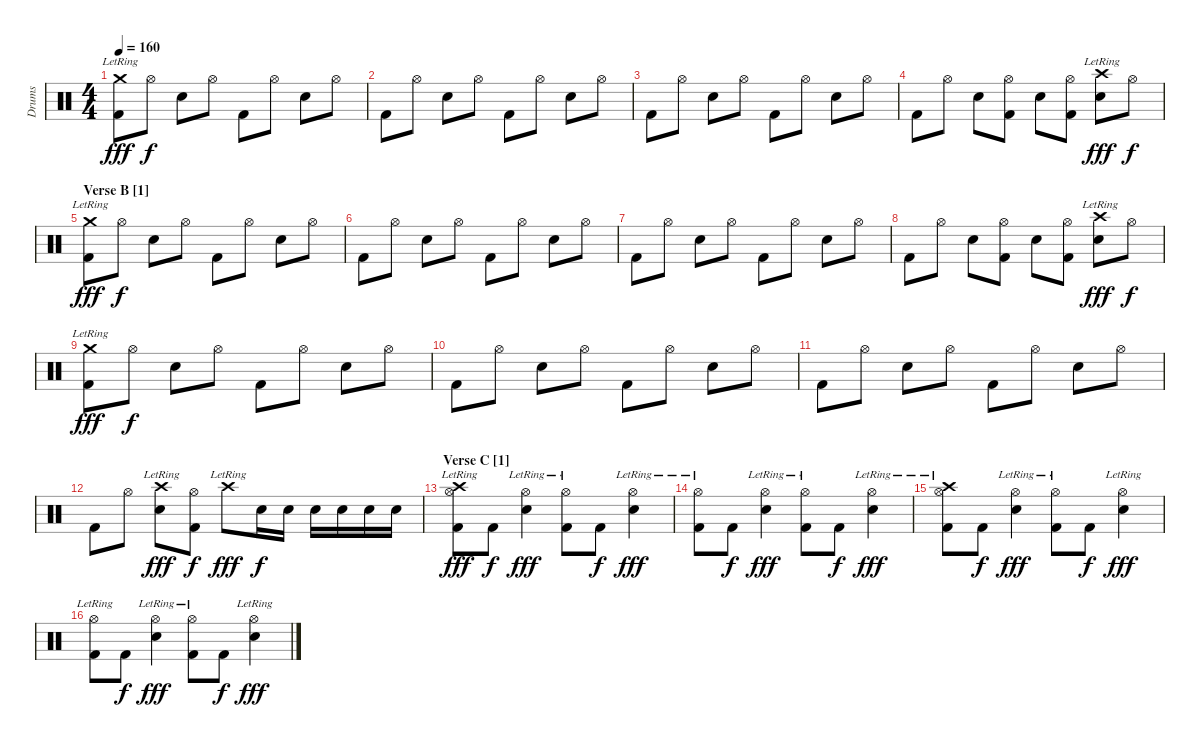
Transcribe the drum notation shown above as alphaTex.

\track ("Drums" "Drums") {instrument percussion}
\staff {score}
\articulation defaults
\ts (4 4)
\tempo 160
\clef neutral
\ks c
("Crash medium (hit)"{lr} "Kick (hit) 2").8{dy fff} "Hi-Hat (open)".8{dy f} "Electric Snare (hit)".8 "Hi-Hat (open)".8 "Kick (hit) 2".8 "Hi-Hat (open)".8 "Electric Snare (hit)".8 "Hi-Hat (open)".8 |
"Kick (hit) 2".8 "Hi-Hat (open)".8 "Electric Snare (hit)".8 "Hi-Hat (open)".8 "Kick (hit) 2".8 "Hi-Hat (open)".8 "Electric Snare (hit)".8 "Hi-Hat (open)".8 |
"Kick (hit) 2".8 "Hi-Hat (open)".8 "Electric Snare (hit)".8 "Hi-Hat (open)".8 "Kick (hit) 2".8 "Hi-Hat (open)".8 "Electric Snare (hit)".8 "Hi-Hat (open)".8 |
"Kick (hit) 2".8 "Hi-Hat (open)".8 "Electric Snare (hit)".8 ("Hi-Hat (open)" "Kick (hit) 2").8 "Electric Snare (hit)".8 ("Hi-Hat (open)" "Kick (hit) 2").8 ("Crash high (hit)"{lr} "Electric Snare (hit)").8{dy fff} "Hi-Hat (open)".8{dy f} |
\section ("" "Verse B [1]")
("Crash medium (hit)"{lr} "Kick (hit) 2").8{dy fff} "Hi-Hat (open)".8{dy f} "Electric Snare (hit)".8 "Hi-Hat (open)".8 "Kick (hit) 2".8 "Hi-Hat (open)".8 "Electric Snare (hit)".8 "Hi-Hat (open)".8 |
"Kick (hit) 2".8 "Hi-Hat (open)".8 "Electric Snare (hit)".8 "Hi-Hat (open)".8 "Kick (hit) 2".8 "Hi-Hat (open)".8 "Electric Snare (hit)".8 "Hi-Hat (open)".8 |
"Kick (hit) 2".8 "Hi-Hat (open)".8 "Electric Snare (hit)".8 "Hi-Hat (open)".8 "Kick (hit) 2".8 "Hi-Hat (open)".8 "Electric Snare (hit)".8 "Hi-Hat (open)".8 |
"Kick (hit) 2".8 "Hi-Hat (open)".8 "Electric Snare (hit)".8 ("Hi-Hat (open)" "Kick (hit) 2").8 "Electric Snare (hit)".8 ("Hi-Hat (open)" "Kick (hit) 2").8 ("Crash high (hit)"{lr} "Electric Snare (hit)").8{dy fff} "Hi-Hat (open)".8{dy f} |
("Crash medium (hit)"{lr} "Kick (hit) 2").8{dy fff} "Hi-Hat (open)".8{dy f} "Electric Snare (hit)".8 "Hi-Hat (open)".8 "Kick (hit) 2".8 "Hi-Hat (open)".8 "Electric Snare (hit)".8 "Hi-Hat (open)".8 |
"Kick (hit) 2".8 "Hi-Hat (open)".8 "Electric Snare (hit)".8 "Hi-Hat (open)".8 "Kick (hit) 2".8 "Hi-Hat (open)".8 "Electric Snare (hit)".8 "Hi-Hat (open)".8 |
"Kick (hit) 2".8 "Hi-Hat (open)".8 "Electric Snare (hit)".8 "Hi-Hat (open)".8 "Kick (hit) 2".8 "Hi-Hat (open)".8 "Electric Snare (hit)".8 "Hi-Hat (open)".8 |
"Kick (hit) 2".8 "Hi-Hat (open)".8 ("Crash high (hit)"{lr} "Electric Snare (hit)").8{dy fff} ("Hi-Hat (open)" "Kick (hit) 2").8{dy f} "Crash high (hit)"{lr}.8{dy fff} "Electric Snare (hit)".16{dy f} "Electric Snare (hit)".16 "Electric Snare (hit)".16 "Electric Snare (hit)".16 "Electric Snare (hit)".16 "Electric Snare (hit)".16 |
\section ("" "Verse C [1]")
("Crash high (hit)" "Hi-Hat (open)"{lr} "Kick (hit) 2").8{dy fff} "Kick (hit) 2".8{dy f} ("Hi-Hat (open)"{lr} "Electric Snare (hit)").4{dy fff} ("Hi-Hat (open)"{lr} "Kick (hit) 2").8 "Kick (hit) 2".8{dy f} ("Hi-Hat (open)"{lr} "Electric Snare (hit)").4{dy fff} |
("Hi-Hat (open)"{lr} "Kick (hit) 2").8 "Kick (hit) 2".8{dy f} ("Hi-Hat (open)"{lr} "Electric Snare (hit)").4{dy fff} ("Hi-Hat (open)"{lr} "Kick (hit) 2").8 "Kick (hit) 2".8{dy f} ("Hi-Hat (open)"{lr} "Electric Snare (hit)").4{dy fff} |
("Crash high (hit)" "Hi-Hat (open)"{lr} "Kick (hit) 2").8 "Kick (hit) 2".8{dy f} ("Hi-Hat (open)"{lr} "Electric Snare (hit)").4{dy fff} ("Hi-Hat (open)"{lr} "Kick (hit) 2").8 "Kick (hit) 2".8{dy f} ("Hi-Hat (open)"{lr} "Electric Snare (hit)").4{dy fff} |
("Hi-Hat (open)"{lr} "Kick (hit) 2").8 "Kick (hit) 2".8{dy f} ("Hi-Hat (open)"{lr} "Electric Snare (hit)").4{dy fff} ("Hi-Hat (open)"{lr} "Kick (hit) 2").8 "Kick (hit) 2".8{dy f} ("Hi-Hat (open)"{lr} "Electric Snare (hit)").4{dy fff}
